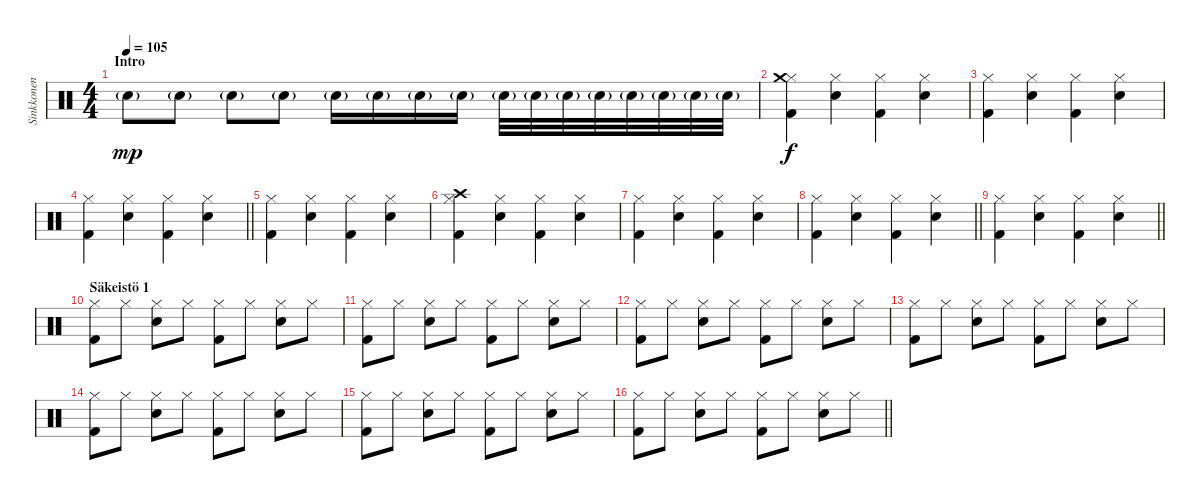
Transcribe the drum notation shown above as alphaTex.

\track ("Sinkkonen" "Sinkkonen") {instrument percussion}
\staff {score}
\articulation defaults
\ts (4 4)
\section ("" "Intro")
\tempo 105
\clef neutral
\ks c "Electric Snare (hit)"{g}.8{dy mp} "Electric Snare (hit)"{g}.8 "Electric Snare (hit)"{g}.8 "Electric Snare (hit)"{g}.8 "Electric Snare (hit)"{g}.16 "Electric Snare (hit)"{g}.16 "Electric Snare (hit)"{g}.16 "Electric Snare (hit)"{g}.16 "Electric Snare (hit)"{g}.32 "Electric Snare (hit)"{g}.32 "Electric Snare (hit)"{g}.32 "Electric Snare (hit)"{g}.32 "Electric Snare (hit)"{g}.32 "Electric Snare (hit)"{g}.32 "Electric Snare (hit)"{g}.32 "Electric Snare (hit)"{g}.32
|
("Hi-Hat (closed)" "Crash medium (hit)" "Kick (hit) 2").4{dy f} ("Hi-Hat (closed)" "Electric Snare (hit)").4 ("Hi-Hat (closed)" "Kick (hit) 2").4 ("Hi-Hat (closed)" "Electric Snare (hit)").4 |
("Hi-Hat (closed)" "Kick (hit) 2").4 ("Hi-Hat (closed)" "Electric Snare (hit)").4 ("Hi-Hat (closed)" "Kick (hit) 2").4 ("Hi-Hat (closed)" "Electric Snare (hit)").4 |
\barLineRight lightlight
("Hi-Hat (closed)" "Kick (hit) 2").4 ("Hi-Hat (closed)" "Electric Snare (hit)").4 ("Hi-Hat (closed)" "Kick (hit) 2").4 ("Hi-Hat (closed)" "Electric Snare (hit)").4 |
("Hi-Hat (closed)" "Kick (hit) 2").4 ("Hi-Hat (closed)" "Electric Snare (hit)").4 ("Hi-Hat (closed)" "Kick (hit) 2").4 ("Hi-Hat (closed)" "Electric Snare (hit)").4 |
("Hi-Hat (closed)" "Crash high (hit)" "Kick (hit) 2").4 ("Hi-Hat (closed)" "Electric Snare (hit)").4 ("Hi-Hat (closed)" "Kick (hit) 2").4 ("Hi-Hat (closed)" "Electric Snare (hit)").4 |
("Hi-Hat (closed)" "Kick (hit) 2").4 ("Hi-Hat (closed)" "Electric Snare (hit)").4 ("Hi-Hat (closed)" "Kick (hit) 2").4 ("Hi-Hat (closed)" "Electric Snare (hit)").4 |
\barLineRight lightlight
("Hi-Hat (closed)" "Kick (hit) 2").4 ("Hi-Hat (closed)" "Electric Snare (hit)").4 ("Hi-Hat (closed)" "Kick (hit) 2").4 ("Hi-Hat (closed)" "Electric Snare (hit)").4 |
\section ("" "")
\barLineRight lightlight
("Hi-Hat (closed)" "Kick (hit) 2").4 ("Hi-Hat (closed)" "Electric Snare (hit)").4 ("Hi-Hat (closed)" "Kick (hit) 2").4 ("Hi-Hat (closed)" "Electric Snare (hit)").4 |
\section ("" "Säkeistö 1")
("Hi-Hat (closed)" "Kick (hit) 2").8 "Hi-Hat (closed)".8 ("Hi-Hat (closed)" "Electric Snare (hit)").8 "Hi-Hat (closed)".8 ("Hi-Hat (closed)" "Kick (hit) 2").8 "Hi-Hat (closed)".8 ("Hi-Hat (closed)" "Electric Snare (hit)").8 "Hi-Hat (closed)".8 |
("Hi-Hat (closed)" "Kick (hit) 2").8 "Hi-Hat (closed)".8 ("Hi-Hat (closed)" "Electric Snare (hit)").8 "Hi-Hat (closed)".8 ("Hi-Hat (closed)" "Kick (hit) 2").8 "Hi-Hat (closed)".8 ("Hi-Hat (closed)" "Electric Snare (hit)").8 "Hi-Hat (closed)".8 |
("Hi-Hat (closed)" "Kick (hit) 2").8 "Hi-Hat (closed)".8 ("Hi-Hat (closed)" "Electric Snare (hit)").8 "Hi-Hat (closed)".8 ("Hi-Hat (closed)" "Kick (hit) 2").8 "Hi-Hat (closed)".8 ("Hi-Hat (closed)" "Electric Snare (hit)").8 "Hi-Hat (closed)".8 |
("Hi-Hat (closed)" "Kick (hit) 2").8 "Hi-Hat (closed)".8 ("Hi-Hat (closed)" "Electric Snare (hit)").8 "Hi-Hat (closed)".8 ("Hi-Hat (closed)" "Kick (hit) 2").8 "Hi-Hat (closed)".8 ("Hi-Hat (closed)" "Electric Snare (hit)").8 "Hi-Hat (closed)".8 |
("Hi-Hat (closed)" "Kick (hit) 2").8 "Hi-Hat (closed)".8 ("Hi-Hat (closed)" "Electric Snare (hit)").8 "Hi-Hat (closed)".8 ("Hi-Hat (closed)" "Kick (hit) 2").8 "Hi-Hat (closed)".8 ("Hi-Hat (closed)" "Electric Snare (hit)").8 "Hi-Hat (closed)".8 |
("Hi-Hat (closed)" "Kick (hit) 2").8 "Hi-Hat (closed)".8 ("Hi-Hat (closed)" "Electric Snare (hit)").8 "Hi-Hat (closed)".8 ("Hi-Hat (closed)" "Kick (hit) 2").8 "Hi-Hat (closed)".8 ("Hi-Hat (closed)" "Electric Snare (hit)").8 "Hi-Hat (closed)".8 |
\barLineRight lightlight
("Hi-Hat (closed)" "Kick (hit) 2").8 "Hi-Hat (closed)".8 ("Hi-Hat (closed)" "Electric Snare (hit)").8 "Hi-Hat (closed)".8 ("Hi-Hat (closed)" "Kick (hit) 2").8 "Hi-Hat (closed)".8 ("Hi-Hat (closed)" "Electric Snare (hit)").8 "Hi-Hat (closed)".8
